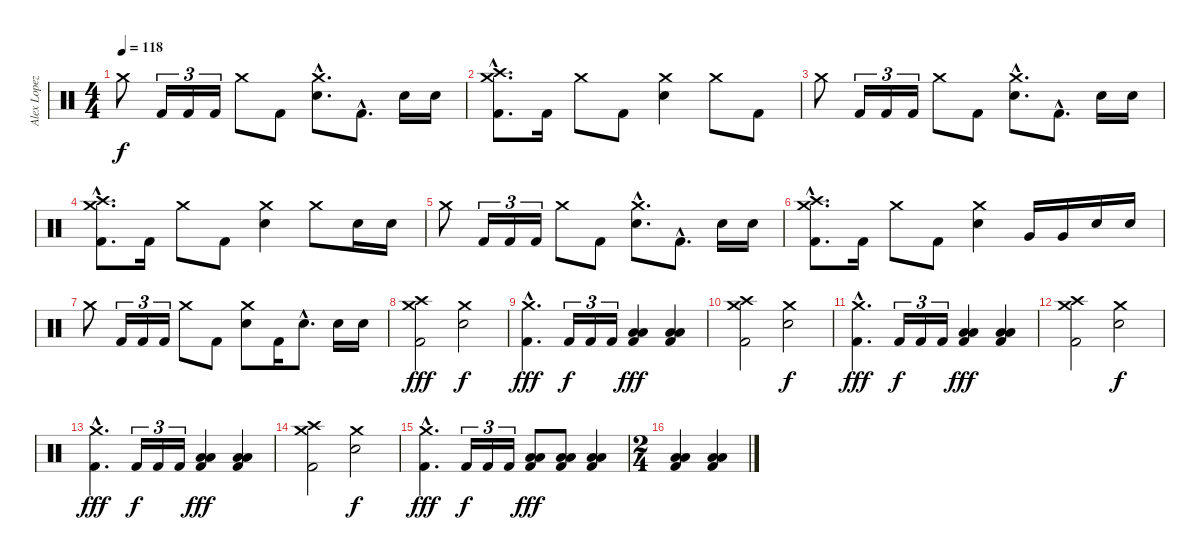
\track ("Alex Lopez" "Alex Lopez") {instrument percussion}
\staff {score}
\articulation defaults
\ts (4 4)
\tempo 118
\clef neutral
\ks c "Crash medium (hit)".8{dy f} "Kick (hit) 2".16{tu (3 2)} "Kick (hit) 2".16{tu (3 2)} "Kick (hit) 2".16{tu (3 2)} "Crash medium (hit)".8 "Kick (hit) 2".8
("Crash medium (hit)"{hac} "Snare (hit) 2"{hac}).8{d} "Kick (hit) 2"{hac}.8{d} "Snare (hit) 2".16 "Snare (hit) 2".16 |
("Crash medium (hit)"{hac} "Crash high (hit)"{hac} "Kick (hit) 2"{hac}).8{d} "Kick (hit) 2".16 "Crash medium (hit)".8 "Kick (hit) 2".8 ("Crash medium (hit)" "Snare (hit) 2").4 "Crash medium (hit)".8 "Kick (hit) 2".8 |
"Crash medium (hit)".8 "Kick (hit) 2".16{tu (3 2)} "Kick (hit) 2".16{tu (3 2)} "Kick (hit) 2".16{tu (3 2)} "Crash medium (hit)".8 "Kick (hit) 2".8 ("Crash medium (hit)"{hac} "Snare (hit) 2"{hac}).8{d} "Kick (hit) 2"{hac}.8{d} "Snare (hit) 2".16 "Snare (hit) 2".16 |
("Crash medium (hit)"{hac} "Crash high (hit)"{hac} "Kick (hit) 2"{hac}).8{d} "Kick (hit) 2".16 "Crash medium (hit)".8 "Kick (hit) 2".8 ("Crash medium (hit)" "Snare (hit) 2").4 "Crash medium (hit)".8 "Snare (hit) 2".16 "Snare (hit) 2".16 |
"Crash medium (hit)".8 "Kick (hit) 2".16{tu (3 2)} "Kick (hit) 2".16{tu (3 2)} "Kick (hit) 2".16{tu (3 2)} "Crash medium (hit)".8 "Kick (hit) 2".8 ("Crash medium (hit)"{hac} "Snare (hit) 2"{hac}).8{d} "Kick (hit) 2"{hac}.8{d} "Snare (hit) 2".16 "Snare (hit) 2".16 |
("Crash medium (hit)"{hac} "Crash high (hit)"{hac} "Kick (hit) 2"{hac}).8{d} "Kick (hit) 2".16 "Crash medium (hit)".8 "Kick (hit) 2".8 ("Crash medium (hit)" "Snare (hit) 2").4 "Very Low Tom (hit)".16 "Very Low Tom (hit)".16 "Snare (hit) 2".16 "Snare (hit) 2".16 |
"Crash medium (hit)".8 "Kick (hit) 2".16{tu (3 2)} "Kick (hit) 2".16{tu (3 2)} "Kick (hit) 2".16{tu (3 2)} "Crash medium (hit)".8 "Kick (hit) 2".8 ("Crash medium (hit)" "Snare (hit) 2").8 "Kick (hit) 2".16 "Snare (hit) 2"{hac}.8{d} "Snare (hit) 2".16 "Snare (hit) 2".16 |
("Crash high (hit)" "Crash medium (hit)" "Kick (hit) 2").2{dy fff} ("Crash medium (hit)" "Snare (hit) 2").2{dy f} |
("Crash medium (hit)"{hac} "Kick (hit) 2"{hac}).4{d dy fff} "Kick (hit) 2".16{tu (3 2) dy f} "Kick (hit) 2".16{tu (3 2)} "Kick (hit) 2".16{tu (3 2)} ("Low Tom (hit)" "Low Floor Tom (hit)" "Kick (hit) 2").4{dy fff} ("Low Tom (hit)" "Low Floor Tom (hit)" "Kick (hit) 2").4 |
("Crash high (hit)" "Crash medium (hit)" "Kick (hit) 2").2 ("Crash medium (hit)" "Snare (hit) 2").2{dy f} |
("Crash medium (hit)"{hac} "Kick (hit) 2"{hac}).4{d dy fff} "Kick (hit) 2".16{tu (3 2) dy f} "Kick (hit) 2".16{tu (3 2)} "Kick (hit) 2".16{tu (3 2)} ("Low Tom (hit)" "Low Floor Tom (hit)" "Kick (hit) 2").4{dy fff} ("Low Tom (hit)" "Low Floor Tom (hit)" "Kick (hit) 2").4 |
("Crash high (hit)" "Crash medium (hit)" "Kick (hit) 2").2 ("Crash medium (hit)" "Snare (hit) 2").2{dy f} |
("Crash medium (hit)"{hac} "Kick (hit) 2"{hac}).4{d dy fff} "Kick (hit) 2".16{tu (3 2) dy f} "Kick (hit) 2".16{tu (3 2)} "Kick (hit) 2".16{tu (3 2)} ("Low Tom (hit)" "Low Floor Tom (hit)" "Kick (hit) 2").4{dy fff} ("Low Tom (hit)" "Low Floor Tom (hit)" "Kick (hit) 2").4 |
("Crash high (hit)" "Crash medium (hit)" "Kick (hit) 2").2 ("Crash medium (hit)" "Snare (hit) 2").2{dy f} |
("Crash medium (hit)"{hac} "Kick (hit) 2"{hac}).4{d dy fff} "Kick (hit) 2".16{tu (3 2) dy f} "Kick (hit) 2".16{tu (3 2)} "Kick (hit) 2".16{tu (3 2)} ("Low Tom (hit)" "Low Floor Tom (hit)" "Kick (hit) 2").8{dy fff} ("Low Tom (hit)" "Low Floor Tom (hit)" "Kick (hit) 2").8 ("Low Tom (hit)" "Low Floor Tom (hit)" "Kick (hit) 2").4 |
\ts (2 4)
("Low Tom (hit)" "Low Floor Tom (hit)" "Kick (hit) 2").4 ("Low Tom (hit)" "Low Floor Tom (hit)" "Kick (hit) 2").4
